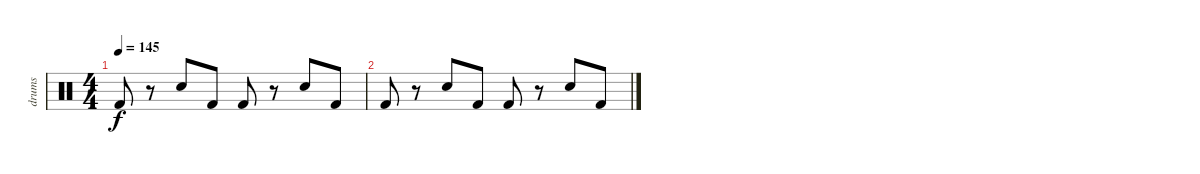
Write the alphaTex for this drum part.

\track ("drums" "drums") {instrument percussion}
\staff {score}
\articulation defaults
\ts (4 4)
\tempo 145
\clef neutral
\ks c "Kick (hit) 2".8{dy f}
r.8 "Snare (hit) 2".8 "Kick (hit) 2".8 "Kick (hit) 2".8 r.8 "Snare (hit) 2".8 "Kick (hit) 2".8 |
"Kick (hit) 2".8 r.8 "Snare (hit) 2".8 "Kick (hit) 2".8 "Kick (hit) 2".8 r.8 "Snare (hit) 2".8 "Kick (hit) 2".8
